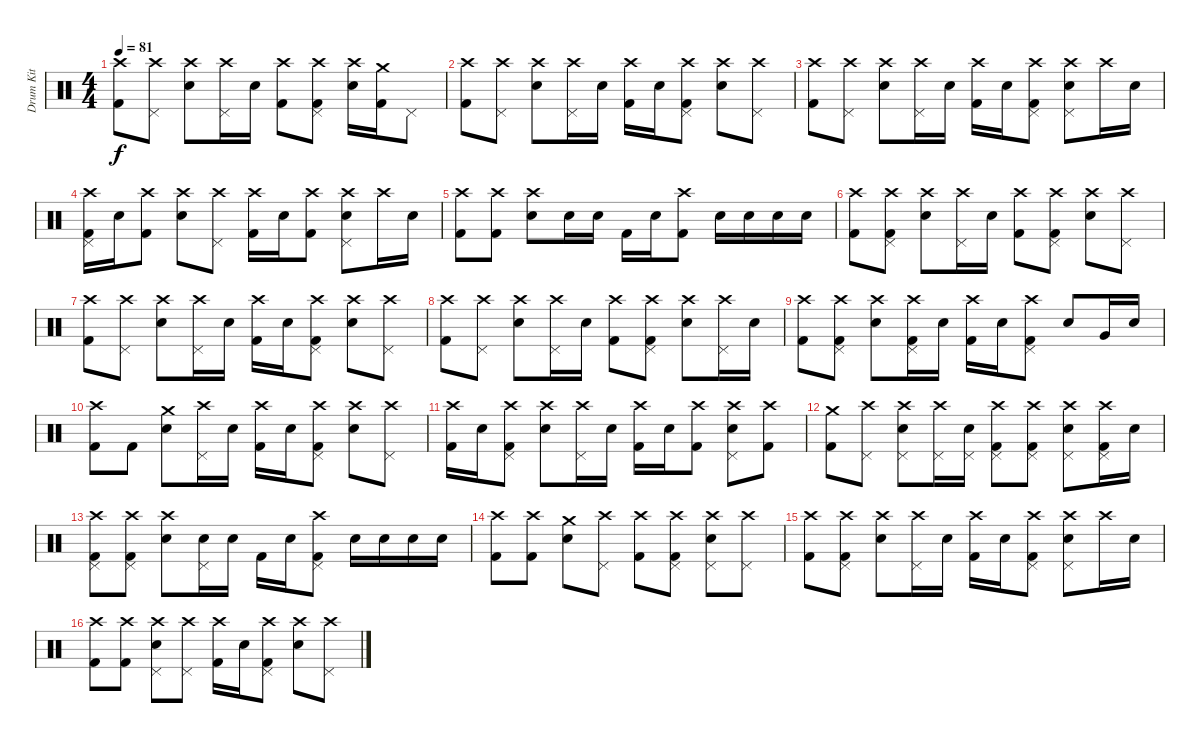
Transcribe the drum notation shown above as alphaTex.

\track ("Drum Kit" "Drum Kit") {instrument percussion}
\staff {score}
\articulation defaults
\ts (4 4)
\tempo 81
\clef neutral
\ks c
("Crash high (hit)" "Kick (hit) 2").8{dy f} ("Crash high (hit)" "Pedal Hi-Hat (hit)").8 ("Crash high (hit)" "Snare (hit) 2").8 ("Crash high (hit)" "Pedal Hi-Hat (hit)").16 "Snare (hit) 2".16 ("Crash high (hit)" "Kick (hit) 2").8 ("Crash high (hit)" "Pedal Hi-Hat (hit)" "Kick (hit) 2").8 ("Crash high (hit)" "Snare (hit) 2").16 ("Crash medium (hit)" "Kick (hit) 2").16 "Pedal Hi-Hat (hit)".8 |
("Crash high (hit)" "Kick (hit) 2").8 ("Crash high (hit)" "Pedal Hi-Hat (hit)").8 ("Crash high (hit)" "Snare (hit) 2").8 ("Crash high (hit)" "Pedal Hi-Hat (hit)").16 "Snare (hit) 2".16 ("Crash high (hit)" "Kick (hit) 2").16 "Snare (hit) 2".16 ("Crash high (hit)" "Pedal Hi-Hat (hit)" "Kick (hit) 2").8 ("Crash high (hit)" "Snare (hit) 2").8 ("Crash high (hit)" "Pedal Hi-Hat (hit)").8 |
("Crash high (hit)" "Kick (hit) 2").8 ("Crash high (hit)" "Pedal Hi-Hat (hit)").8 ("Crash high (hit)" "Snare (hit) 2").8 ("Crash high (hit)" "Pedal Hi-Hat (hit)").16 "Snare (hit) 2".16 ("Crash high (hit)" "Kick (hit) 2").16 "Snare (hit) 2".16 ("Crash high (hit)" "Pedal Hi-Hat (hit)" "Kick (hit) 2").8 ("Crash high (hit)" "Pedal Hi-Hat (hit)" "Snare (hit) 2").8 "Crash high (hit)".16 "Snare (hit) 2".16 |
("Crash high (hit)" "Pedal Hi-Hat (hit)" "Kick (hit) 2").16 "Snare (hit) 2".16 ("Crash high (hit)" "Kick (hit) 2").8 ("Crash high (hit)" "Snare (hit) 2").8 ("Crash high (hit)" "Pedal Hi-Hat (hit)").8 ("Crash high (hit)" "Kick (hit) 2").16 "Snare (hit) 2".16 ("Crash high (hit)" "Kick (hit) 2").8 ("Crash high (hit)" "Pedal Hi-Hat (hit)" "Snare (hit) 2").8 "Crash high (hit)".16 "Snare (hit) 2".16 |
("Crash high (hit)" "Kick (hit) 2").8 ("Crash high (hit)" "Kick (hit) 2").8 ("Crash high (hit)" "Snare (hit) 2").8 "Snare (hit) 2".16 "Snare (hit) 2".16 "Kick (hit) 2".16 "Snare (hit) 2".16 ("Crash high (hit)" "Kick (hit) 2").8 "Snare (hit) 2".16 "Snare (hit) 2".16 "Snare (hit) 2".16 "Snare (hit) 2".16 |
("Crash high (hit)" "Kick (hit) 2").8 ("Crash high (hit)" "Pedal Hi-Hat (hit)" "Kick (hit) 2").8 ("Crash high (hit)" "Snare (hit) 2").8 ("Crash high (hit)" "Pedal Hi-Hat (hit)").16 "Snare (hit) 2".16 ("Crash high (hit)" "Kick (hit) 2").8 ("Crash high (hit)" "Pedal Hi-Hat (hit)" "Kick (hit) 2").8 ("Crash high (hit)" "Snare (hit) 2").8 ("Crash high (hit)" "Pedal Hi-Hat (hit)").8 |
("Crash high (hit)" "Kick (hit) 2").8 ("Crash high (hit)" "Pedal Hi-Hat (hit)").8 ("Crash high (hit)" "Snare (hit) 2").8 ("Crash high (hit)" "Pedal Hi-Hat (hit)").16 "Snare (hit) 2".16 ("Crash high (hit)" "Kick (hit) 2").16 "Snare (hit) 2".16 ("Crash high (hit)" "Pedal Hi-Hat (hit)" "Kick (hit) 2").8 ("Crash high (hit)" "Snare (hit) 2").8 ("Crash high (hit)" "Pedal Hi-Hat (hit)").8 |
("Crash high (hit)" "Kick (hit) 2").8 ("Crash high (hit)" "Pedal Hi-Hat (hit)").8 ("Crash high (hit)" "Snare (hit) 2").8 ("Crash high (hit)" "Pedal Hi-Hat (hit)").16 "Snare (hit) 2".16 ("Crash high (hit)" "Kick (hit) 2").8 ("Crash high (hit)" "Pedal Hi-Hat (hit)" "Kick (hit) 2").8 ("Crash high (hit)" "Snare (hit) 2").8 ("Crash high (hit)" "Pedal Hi-Hat (hit)").16 "Snare (hit) 2".16 |
("Crash high (hit)" "Kick (hit) 2").8 ("Crash high (hit)" "Pedal Hi-Hat (hit)" "Kick (hit) 2").8 ("Crash high (hit)" "Snare (hit) 2").8 ("Crash high (hit)" "Pedal Hi-Hat (hit)" "Kick (hit) 2").16 "Snare (hit) 2".16 ("Crash high (hit)" "Kick (hit) 2").16 "Snare (hit) 2".16 ("Crash high (hit)" "Pedal Hi-Hat (hit)" "Kick (hit) 2").8 "Snare (hit) 2".8 "Very Low Tom (hit)".16 "Snare (hit) 2".16 |
("Crash high (hit)" "Kick (hit) 2").8 "Kick (hit) 2".8 ("Crash medium (hit)" "Snare (hit) 2").8 ("Crash high (hit)" "Pedal Hi-Hat (hit)").16 "Snare (hit) 2".16 ("Crash high (hit)" "Kick (hit) 2").16 "Snare (hit) 2".16 ("Crash high (hit)" "Pedal Hi-Hat (hit)" "Kick (hit) 2").8 ("Crash high (hit)" "Snare (hit) 2").8 ("Crash high (hit)" "Pedal Hi-Hat (hit)").8 |
("Crash high (hit)" "Kick (hit) 2").16 "Snare (hit) 2".16 ("Crash high (hit)" "Pedal Hi-Hat (hit)" "Kick (hit) 2").8 ("Crash high (hit)" "Snare (hit) 2").8 ("Crash high (hit)" "Pedal Hi-Hat (hit)").16 "Snare (hit) 2".16 ("Crash high (hit)" "Kick (hit) 2").16 "Snare (hit) 2".16 ("Crash high (hit)" "Kick (hit) 2").8 ("Crash high (hit)" "Pedal Hi-Hat (hit)" "Snare (hit) 2").8 ("Crash high (hit)" "Kick (hit) 2").8 |
("Crash medium (hit)" "Kick (hit) 2").8 ("Crash high (hit)" "Pedal Hi-Hat (hit)").8 ("Crash high (hit)" "Pedal Hi-Hat (hit)" "Snare (hit) 2").8 ("Crash high (hit)" "Pedal Hi-Hat (hit)").16 ("Pedal Hi-Hat (hit)" "Snare (hit) 2").16 ("Crash high (hit)" "Pedal Hi-Hat (hit)" "Kick (hit) 2").8 ("Crash high (hit)" "Pedal Hi-Hat (hit)" "Kick (hit) 2").8 ("Crash high (hit)" "Pedal Hi-Hat (hit)" "Snare (hit) 2").8 ("Crash high (hit)" "Pedal Hi-Hat (hit)" "Kick (hit) 2").16 "Snare (hit) 2".16 |
("Crash high (hit)" "Pedal Hi-Hat (hit)" "Kick (hit) 2").8 ("Crash high (hit)" "Pedal Hi-Hat (hit)" "Kick (hit) 2").8 ("Crash high (hit)" "Snare (hit) 2").8 ("Pedal Hi-Hat (hit)" "Snare (hit) 2").16 "Snare (hit) 2".16 "Kick (hit) 2".16 "Snare (hit) 2".16 ("Crash high (hit)" "Pedal Hi-Hat (hit)" "Kick (hit) 2").8 "Snare (hit) 2".16 "Snare (hit) 2".16 "Snare (hit) 2".16 "Snare (hit) 2".16 |
("Crash high (hit)" "Kick (hit) 2").8 ("Crash high (hit)" "Kick (hit) 2").8 ("Crash medium (hit)" "Snare (hit) 2").8 ("Crash high (hit)" "Pedal Hi-Hat (hit)").8 ("Crash high (hit)" "Kick (hit) 2").8 ("Crash high (hit)" "Pedal Hi-Hat (hit)" "Kick (hit) 2").8 ("Crash high (hit)" "Pedal Hi-Hat (hit)" "Snare (hit) 2").8 ("Crash high (hit)" "Pedal Hi-Hat (hit)").8 |
("Crash high (hit)" "Kick (hit) 2").8 ("Crash high (hit)" "Pedal Hi-Hat (hit)" "Kick (hit) 2").8 ("Crash high (hit)" "Snare (hit) 2").8 ("Crash high (hit)" "Pedal Hi-Hat (hit)").16 "Snare (hit) 2".16 ("Crash high (hit)" "Kick (hit) 2").16 "Snare (hit) 2".16 ("Crash high (hit)" "Pedal Hi-Hat (hit)" "Kick (hit) 2").8 ("Crash high (hit)" "Pedal Hi-Hat (hit)" "Snare (hit) 2").8 "Crash high (hit)".16 "Snare (hit) 2".16 |
("Crash high (hit)" "Kick (hit) 2").8 ("Crash high (hit)" "Kick (hit) 2").8 ("Crash high (hit)" "Pedal Hi-Hat (hit)" "Snare (hit) 2").8 ("Crash high (hit)" "Pedal Hi-Hat (hit)").8 ("Crash high (hit)" "Kick (hit) 2").16 "Snare (hit) 2".16 ("Crash high (hit)" "Pedal Hi-Hat (hit)" "Kick (hit) 2").8 ("Crash high (hit)" "Snare (hit) 2").8 ("Crash high (hit)" "Pedal Hi-Hat (hit)").8
